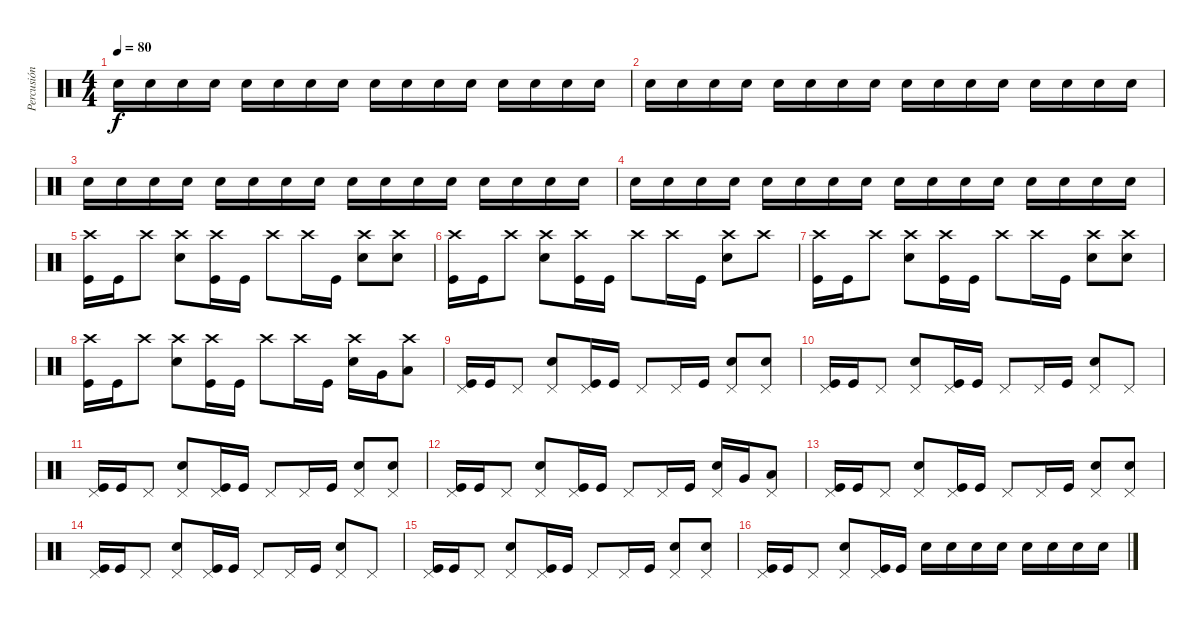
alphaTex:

\track ("Percusión" "Percusión") {instrument percussion}
\staff {score}
\articulation defaults
\ts (4 4)
\tempo 80
\clef neutral
\ks c "Snare (hit) 2".16{dy f volume 13} "Snare (hit) 2".16 "Snare (hit) 2".16 "Snare (hit) 2".16 "Snare (hit) 2".16 "Snare (hit) 2".16 "Snare (hit) 2".16 "Snare (hit) 2".16 "Snare (hit) 2".16 "Snare (hit) 2".16 "Snare (hit) 2".16 "Snare (hit) 2".16 "Snare (hit) 2".16 "Snare (hit) 2".16 "Snare (hit) 2".16 "Snare (hit) 2".16
|
"Snare (hit) 2".16 "Snare (hit) 2".16 "Snare (hit) 2".16 "Snare (hit) 2".16 "Snare (hit) 2".16 "Snare (hit) 2".16 "Snare (hit) 2".16 "Snare (hit) 2".16 "Snare (hit) 2".16 "Snare (hit) 2".16 "Snare (hit) 2".16 "Snare (hit) 2".16 "Snare (hit) 2".16 "Snare (hit) 2".16 "Snare (hit) 2".16 "Snare (hit) 2".16 |
"Snare (hit) 2".16 "Snare (hit) 2".16 "Snare (hit) 2".16 "Snare (hit) 2".16 "Snare (hit) 2".16 "Snare (hit) 2".16 "Snare (hit) 2".16 "Snare (hit) 2".16 "Snare (hit) 2".16 "Snare (hit) 2".16 "Snare (hit) 2".16 "Snare (hit) 2".16 "Snare (hit) 2".16 "Snare (hit) 2".16 "Snare (hit) 2".16 "Snare (hit) 2".16 |
"Snare (hit) 2".16 "Snare (hit) 2".16 "Snare (hit) 2".16 "Snare (hit) 2".16 "Snare (hit) 2".16 "Snare (hit) 2".16 "Snare (hit) 2".16 "Snare (hit) 2".16 "Snare (hit) 2".16 "Snare (hit) 2".16 "Snare (hit) 2".16 "Snare (hit) 2".16 "Snare (hit) 2".16 "Snare (hit) 2".16 "Snare (hit) 2".16 "Snare (hit) 2".16 |
("Crash high (hit)" "Kick (hit)").16 "Kick (hit)".16 "Crash high (hit)".8 ("Crash high (hit)" "Snare (hit) 2").8 ("Crash high (hit)" "Kick (hit)").16 "Kick (hit)".16 "Crash high (hit)".8 "Crash high (hit)".16 "Kick (hit)".16 ("Crash high (hit)" "Snare (hit) 2").8 ("Crash high (hit)" "Snare (hit) 2").8 |
("Crash high (hit)" "Kick (hit)").16 "Kick (hit)".16 "Crash high (hit)".8 ("Crash high (hit)" "Snare (hit) 2").8 ("Crash high (hit)" "Kick (hit)").16 "Kick (hit)".16 "Crash high (hit)".8 "Crash high (hit)".16 "Kick (hit)".16 ("Crash high (hit)" "Snare (hit) 2").8 "Crash high (hit)".8 |
("Crash high (hit)" "Kick (hit)").16 "Kick (hit)".16 "Crash high (hit)".8 ("Crash high (hit)" "Snare (hit) 2").8 ("Crash high (hit)" "Kick (hit)").16 "Kick (hit)".16 "Crash high (hit)".8 "Crash high (hit)".16 "Kick (hit)".16 ("Crash high (hit)" "Snare (hit) 2").8 ("Crash high (hit)" "Snare (hit) 2").8 |
("Crash high (hit)" "Kick (hit)").16 "Kick (hit)".16 "Crash high (hit)".8 ("Crash high (hit)" "Snare (hit) 2").8 ("Crash high (hit)" "Kick (hit)").16 "Kick (hit)".16 "Crash high (hit)".8 "Crash high (hit)".16 "Kick (hit)".16 ("Crash high (hit)" "Snare (hit) 2").16 "Very Low Tom (hit)".16 ("Crash high (hit)" "Low Floor Tom (hit)").8 |
("Pedal Hi-Hat (hit)" "Kick (hit)").16 "Kick (hit)".16 "Pedal Hi-Hat (hit)".8 ("Pedal Hi-Hat (hit)" "Snare (hit) 2").8 ("Pedal Hi-Hat (hit)" "Kick (hit)").16 "Kick (hit)".16 "Pedal Hi-Hat (hit)".8 "Pedal Hi-Hat (hit)".16 "Kick (hit)".16 ("Pedal Hi-Hat (hit)" "Snare (hit) 2").8 ("Pedal Hi-Hat (hit)" "Snare (hit) 2").8 |
("Pedal Hi-Hat (hit)" "Kick (hit)").16 "Kick (hit)".16 "Pedal Hi-Hat (hit)".8 ("Pedal Hi-Hat (hit)" "Snare (hit) 2").8 ("Pedal Hi-Hat (hit)" "Kick (hit)").16 "Kick (hit)".16 "Pedal Hi-Hat (hit)".8 "Pedal Hi-Hat (hit)".16 "Kick (hit)".16 ("Pedal Hi-Hat (hit)" "Snare (hit) 2").8 "Pedal Hi-Hat (hit)".8 |
("Pedal Hi-Hat (hit)" "Kick (hit)").16 "Kick (hit)".16 "Pedal Hi-Hat (hit)".8 ("Pedal Hi-Hat (hit)" "Snare (hit) 2").8 ("Pedal Hi-Hat (hit)" "Kick (hit)").16 "Kick (hit)".16 "Pedal Hi-Hat (hit)".8 "Pedal Hi-Hat (hit)".16 "Kick (hit)".16 ("Pedal Hi-Hat (hit)" "Snare (hit) 2").8 ("Pedal Hi-Hat (hit)" "Snare (hit) 2").8 |
("Pedal Hi-Hat (hit)" "Kick (hit)").16 "Kick (hit)".16 "Pedal Hi-Hat (hit)".8 ("Pedal Hi-Hat (hit)" "Snare (hit) 2").8 ("Pedal Hi-Hat (hit)" "Kick (hit)").16 "Kick (hit)".16 "Pedal Hi-Hat (hit)".8 "Pedal Hi-Hat (hit)".16 "Kick (hit)".16 ("Pedal Hi-Hat (hit)" "Snare (hit) 2").16 "Very Low Tom (hit)".16 ("Pedal Hi-Hat (hit)" "Low Floor Tom (hit)").8 |
("Pedal Hi-Hat (hit)" "Kick (hit)").16 "Kick (hit)".16 "Pedal Hi-Hat (hit)".8 ("Pedal Hi-Hat (hit)" "Snare (hit) 2").8 ("Pedal Hi-Hat (hit)" "Kick (hit)").16 "Kick (hit)".16 "Pedal Hi-Hat (hit)".8 "Pedal Hi-Hat (hit)".16 "Kick (hit)".16 ("Pedal Hi-Hat (hit)" "Snare (hit) 2").8 ("Pedal Hi-Hat (hit)" "Snare (hit) 2").8 |
("Pedal Hi-Hat (hit)" "Kick (hit)").16 "Kick (hit)".16 "Pedal Hi-Hat (hit)".8 ("Pedal Hi-Hat (hit)" "Snare (hit) 2").8 ("Pedal Hi-Hat (hit)" "Kick (hit)").16 "Kick (hit)".16 "Pedal Hi-Hat (hit)".8 "Pedal Hi-Hat (hit)".16 "Kick (hit)".16 ("Pedal Hi-Hat (hit)" "Snare (hit) 2").8 "Pedal Hi-Hat (hit)".8 |
("Pedal Hi-Hat (hit)" "Kick (hit)").16 "Kick (hit)".16 "Pedal Hi-Hat (hit)".8 ("Pedal Hi-Hat (hit)" "Snare (hit) 2").8 ("Pedal Hi-Hat (hit)" "Kick (hit)").16 "Kick (hit)".16 "Pedal Hi-Hat (hit)".8 "Pedal Hi-Hat (hit)".16 "Kick (hit)".16 ("Pedal Hi-Hat (hit)" "Snare (hit) 2").8 ("Pedal Hi-Hat (hit)" "Snare (hit) 2").8 |
("Pedal Hi-Hat (hit)" "Kick (hit)").16 "Kick (hit)".16 "Pedal Hi-Hat (hit)".8 ("Pedal Hi-Hat (hit)" "Snare (hit) 2").8 ("Pedal Hi-Hat (hit)" "Kick (hit)").16 "Kick (hit)".16 "Snare (hit) 2".16 "Snare (hit) 2".16 "Snare (hit) 2".16 "Snare (hit) 2".16 "Snare (hit) 2".16 "Snare (hit) 2".16 "Snare (hit) 2".16 "Snare (hit) 2".16
